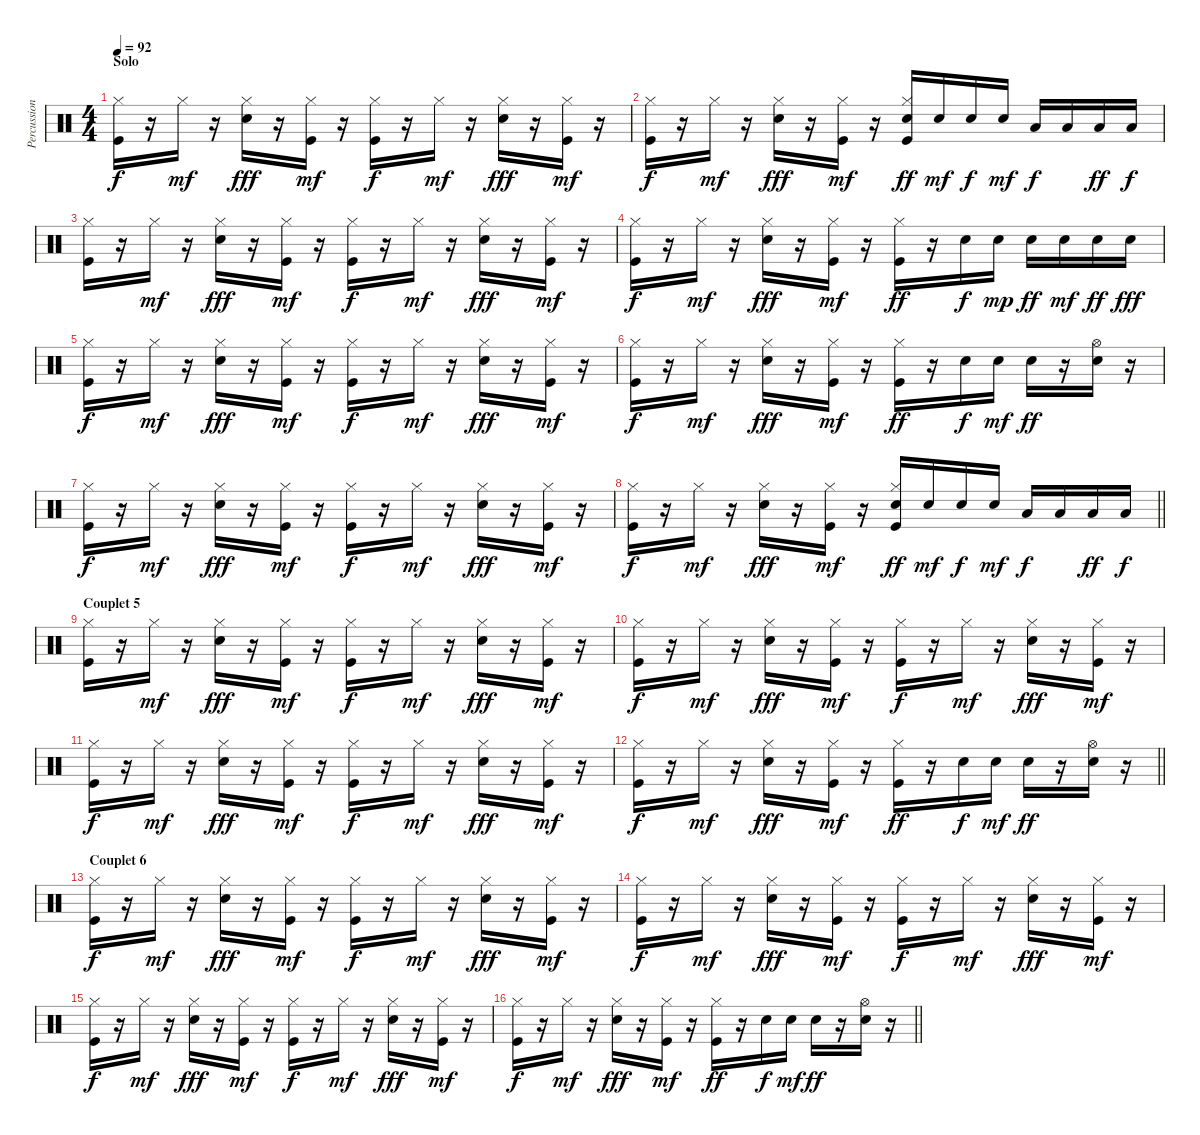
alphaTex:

\track ("Percussions" "Percussion") {instrument percussion}
\staff {score}
\articulation defaults
\ts (4 4)
\section ("" "Solo")
\tempo 92
\clef neutral
\ks c
("Kick (hit)" "Hi-Hat (closed)").16{dy f} r.16 "Hi-Hat (closed)".16{dy mf} r.16 ("Snare (hit) 2" "Hi-Hat (closed)").16{dy fff} r.16 ("Kick (hit)" "Hi-Hat (closed)").16{dy mf} r.16 ("Kick (hit)" "Hi-Hat (closed)").16{dy f} r.16 "Hi-Hat (closed)".16{dy mf} r.16 ("Snare (hit) 2" "Hi-Hat (closed)").16{dy fff} r.16 ("Kick (hit)" "Hi-Hat (closed)").16{dy mf} r.16 |
("Kick (hit)" "Hi-Hat (closed)").16{dy f} r.16 "Hi-Hat (closed)".16{dy mf} r.16 ("Snare (hit) 2" "Hi-Hat (closed)").16{dy fff} r.16 ("Kick (hit)" "Hi-Hat (closed)").16{dy mf} r.16 ("Kick (hit)" "Snare (hit) 2" "Hi-Hat (closed)").16{dy ff} "Snare (hit) 2".16{dy mf} "Snare (hit) 2".16{dy f} "Snare (hit) 2".16{dy mf} "Low Tom (hit)".16{dy f} "Low Tom (hit)".16 "Low Tom (hit)".16{dy ff} "Low Tom (hit)".16{dy f} |
("Kick (hit)" "Hi-Hat (closed)").16 r.16 "Hi-Hat (closed)".16{dy mf} r.16 ("Snare (hit) 2" "Hi-Hat (closed)").16{dy fff} r.16 ("Kick (hit)" "Hi-Hat (closed)").16{dy mf} r.16 ("Kick (hit)" "Hi-Hat (closed)").16{dy f} r.16 "Hi-Hat (closed)".16{dy mf} r.16 ("Snare (hit) 2" "Hi-Hat (closed)").16{dy fff} r.16 ("Kick (hit)" "Hi-Hat (closed)").16{dy mf} r.16 |
("Kick (hit)" "Hi-Hat (closed)").16{dy f} r.16 "Hi-Hat (closed)".16{dy mf} r.16 ("Snare (hit) 2" "Hi-Hat (closed)").16{dy fff} r.16 ("Kick (hit)" "Hi-Hat (closed)").16{dy mf} r.16 ("Kick (hit)" "Hi-Hat (closed)").16{dy ff} r.16 "Snare (hit) 2".16{dy f} "Snare (hit) 2".16{dy mp} "Snare (hit) 2".16{dy ff} "Snare (hit) 2".16{dy mf} "Snare (hit) 2".16{dy ff} "Snare (hit) 2".16{dy fff} |
("Kick (hit)" "Hi-Hat (closed)").16{dy f} r.16 "Hi-Hat (closed)".16{dy mf} r.16 ("Snare (hit) 2" "Hi-Hat (closed)").16{dy fff} r.16 ("Kick (hit)" "Hi-Hat (closed)").16{dy mf} r.16 ("Kick (hit)" "Hi-Hat (closed)").16{dy f} r.16 "Hi-Hat (closed)".16{dy mf} r.16 ("Snare (hit) 2" "Hi-Hat (closed)").16{dy fff} r.16 ("Kick (hit)" "Hi-Hat (closed)").16{dy mf} r.16 |
("Kick (hit)" "Hi-Hat (closed)").16{dy f} r.16 "Hi-Hat (closed)".16{dy mf} r.16 ("Snare (hit) 2" "Hi-Hat (closed)").16{dy fff} r.16 ("Kick (hit)" "Hi-Hat (closed)").16{dy mf} r.16 ("Kick (hit)" "Hi-Hat (closed)").16{dy ff} r.16 "Snare (hit) 2".16{dy f} "Snare (hit) 2".16{dy mf} "Snare (hit) 2".16{dy ff} r.16 ("Snare (hit) 2" "Hi-Hat (open)").16 r.16 |
("Kick (hit)" "Hi-Hat (closed)").16{dy f} r.16 "Hi-Hat (closed)".16{dy mf} r.16 ("Snare (hit) 2" "Hi-Hat (closed)").16{dy fff} r.16 ("Kick (hit)" "Hi-Hat (closed)").16{dy mf} r.16 ("Kick (hit)" "Hi-Hat (closed)").16{dy f} r.16 "Hi-Hat (closed)".16{dy mf} r.16 ("Snare (hit) 2" "Hi-Hat (closed)").16{dy fff} r.16 ("Kick (hit)" "Hi-Hat (closed)").16{dy mf} r.16 |
\barLineRight lightlight
("Kick (hit)" "Hi-Hat (closed)").16{dy f} r.16 "Hi-Hat (closed)".16{dy mf} r.16 ("Snare (hit) 2" "Hi-Hat (closed)").16{dy fff} r.16 ("Kick (hit)" "Hi-Hat (closed)").16{dy mf} r.16 ("Kick (hit)" "Snare (hit) 2" "Hi-Hat (closed)").16{dy ff} "Snare (hit) 2".16{dy mf} "Snare (hit) 2".16{dy f} "Snare (hit) 2".16{dy mf} "Low Tom (hit)".16{dy f} "Low Tom (hit)".16 "Low Tom (hit)".16{dy ff} "Low Tom (hit)".16{dy f} |
\section ("" "Couplet 5")
("Kick (hit)" "Hi-Hat (closed)").16 r.16 "Hi-Hat (closed)".16{dy mf} r.16 ("Snare (hit) 2" "Hi-Hat (closed)").16{dy fff} r.16 ("Kick (hit)" "Hi-Hat (closed)").16{dy mf} r.16 ("Kick (hit)" "Hi-Hat (closed)").16{dy f} r.16 "Hi-Hat (closed)".16{dy mf} r.16 ("Snare (hit) 2" "Hi-Hat (closed)").16{dy fff} r.16 ("Kick (hit)" "Hi-Hat (closed)").16{dy mf} r.16 |
("Kick (hit)" "Hi-Hat (closed)").16{dy f} r.16 "Hi-Hat (closed)".16{dy mf} r.16 ("Snare (hit) 2" "Hi-Hat (closed)").16{dy fff} r.16 ("Kick (hit)" "Hi-Hat (closed)").16{dy mf} r.16 ("Kick (hit)" "Hi-Hat (closed)").16{dy f} r.16 "Hi-Hat (closed)".16{dy mf} r.16 ("Snare (hit) 2" "Hi-Hat (closed)").16{dy fff} r.16 ("Kick (hit)" "Hi-Hat (closed)").16{dy mf} r.16 |
("Kick (hit)" "Hi-Hat (closed)").16{dy f} r.16 "Hi-Hat (closed)".16{dy mf} r.16 ("Snare (hit) 2" "Hi-Hat (closed)").16{dy fff} r.16 ("Kick (hit)" "Hi-Hat (closed)").16{dy mf} r.16 ("Kick (hit)" "Hi-Hat (closed)").16{dy f} r.16 "Hi-Hat (closed)".16{dy mf} r.16 ("Snare (hit) 2" "Hi-Hat (closed)").16{dy fff} r.16 ("Kick (hit)" "Hi-Hat (closed)").16{dy mf} r.16 |
\barLineRight lightlight
("Kick (hit)" "Hi-Hat (closed)").16{dy f} r.16 "Hi-Hat (closed)".16{dy mf} r.16 ("Snare (hit) 2" "Hi-Hat (closed)").16{dy fff} r.16 ("Kick (hit)" "Hi-Hat (closed)").16{dy mf} r.16 ("Kick (hit)" "Hi-Hat (closed)").16{dy ff} r.16 "Snare (hit) 2".16{dy f} "Snare (hit) 2".16{dy mf} "Snare (hit) 2".16{dy ff} r.16 ("Snare (hit) 2" "Hi-Hat (open)").16 r.16 |
\section ("" "Couplet 6")
("Kick (hit)" "Hi-Hat (closed)").16{dy f} r.16 "Hi-Hat (closed)".16{dy mf} r.16 ("Snare (hit) 2" "Hi-Hat (closed)").16{dy fff} r.16 ("Kick (hit)" "Hi-Hat (closed)").16{dy mf} r.16 ("Kick (hit)" "Hi-Hat (closed)").16{dy f} r.16 "Hi-Hat (closed)".16{dy mf} r.16 ("Snare (hit) 2" "Hi-Hat (closed)").16{dy fff} r.16 ("Kick (hit)" "Hi-Hat (closed)").16{dy mf} r.16 |
("Kick (hit)" "Hi-Hat (closed)").16{dy f} r.16 "Hi-Hat (closed)".16{dy mf} r.16 ("Snare (hit) 2" "Hi-Hat (closed)").16{dy fff} r.16 ("Kick (hit)" "Hi-Hat (closed)").16{dy mf} r.16 ("Kick (hit)" "Hi-Hat (closed)").16{dy f} r.16 "Hi-Hat (closed)".16{dy mf} r.16 ("Snare (hit) 2" "Hi-Hat (closed)").16{dy fff} r.16 ("Kick (hit)" "Hi-Hat (closed)").16{dy mf} r.16 |
("Kick (hit)" "Hi-Hat (closed)").16{dy f} r.16 "Hi-Hat (closed)".16{dy mf} r.16 ("Snare (hit) 2" "Hi-Hat (closed)").16{dy fff} r.16 ("Kick (hit)" "Hi-Hat (closed)").16{dy mf} r.16 ("Kick (hit)" "Hi-Hat (closed)").16{dy f} r.16 "Hi-Hat (closed)".16{dy mf} r.16 ("Snare (hit) 2" "Hi-Hat (closed)").16{dy fff} r.16 ("Kick (hit)" "Hi-Hat (closed)").16{dy mf} r.16 |
\barLineRight lightlight
("Kick (hit)" "Hi-Hat (closed)").16{dy f} r.16 "Hi-Hat (closed)".16{dy mf} r.16 ("Snare (hit) 2" "Hi-Hat (closed)").16{dy fff} r.16 ("Kick (hit)" "Hi-Hat (closed)").16{dy mf} r.16 ("Kick (hit)" "Hi-Hat (closed)").16{dy ff} r.16 "Snare (hit) 2".16{dy f} "Snare (hit) 2".16{dy mf} "Snare (hit) 2".16{dy ff} r.16 ("Snare (hit) 2" "Hi-Hat (open)").16 r.16
